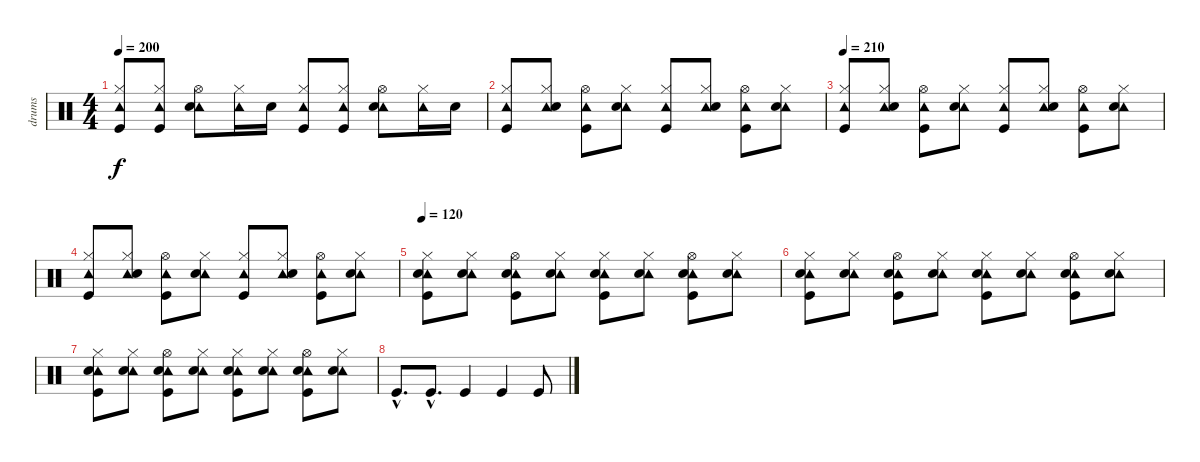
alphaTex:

\track ("drums" "drums") {instrument percussion}
\staff {score}
\articulation defaults
\ts (4 4)
\tempo 200
\clef neutral
\ks c
("Tambourine (hit)" "Hi-Hat (closed)" "Kick (hit)").8{dy f} ("Tambourine (hit)" "Hi-Hat (closed)" "Kick (hit)").8 ("Tambourine (hit)" "Hi-Hat (open)" "Electric Snare (hit)").8 ("Tambourine (hit)" "Hi-Hat (closed)").16 "Electric Snare (hit)".16 ("Tambourine (hit)" "Hi-Hat (closed)" "Kick (hit)").8 ("Tambourine (hit)" "Hi-Hat (closed)" "Kick (hit)").8 ("Tambourine (hit)" "Hi-Hat (open)" "Electric Snare (hit)").8 ("Tambourine (hit)" "Hi-Hat (closed)").16 "Electric Snare (hit)".16 |
("Tambourine (hit)" "Hi-Hat (closed)" "Kick (hit)").8 ("Tambourine (hit)" "Hi-Hat (closed)" "Electric Snare (hit)").8 ("Tambourine (hit)" "Hi-Hat (open)" "Kick (hit)").8 ("Tambourine (hit)" "Hi-Hat (closed)" "Electric Snare (hit)").8 ("Tambourine (hit)" "Hi-Hat (closed)" "Kick (hit)").8 ("Tambourine (hit)" "Hi-Hat (closed)" "Electric Snare (hit)").8 ("Tambourine (hit)" "Hi-Hat (open)" "Kick (hit)").8 ("Tambourine (hit)" "Hi-Hat (closed)" "Electric Snare (hit)").8 |
\tempo 210
("Tambourine (hit)" "Hi-Hat (closed)" "Kick (hit)").8 ("Tambourine (hit)" "Hi-Hat (closed)" "Electric Snare (hit)").8 ("Tambourine (hit)" "Hi-Hat (open)" "Kick (hit)").8 ("Tambourine (hit)" "Hi-Hat (closed)" "Electric Snare (hit)").8 ("Tambourine (hit)" "Hi-Hat (closed)" "Kick (hit)").8 ("Tambourine (hit)" "Hi-Hat (closed)" "Electric Snare (hit)").8 ("Tambourine (hit)" "Hi-Hat (open)" "Kick (hit)").8 ("Tambourine (hit)" "Hi-Hat (closed)" "Electric Snare (hit)").8 |
("Tambourine (hit)" "Hi-Hat (closed)" "Kick (hit)").8 ("Tambourine (hit)" "Hi-Hat (closed)" "Electric Snare (hit)").8 ("Tambourine (hit)" "Hi-Hat (open)" "Kick (hit)").8 ("Tambourine (hit)" "Hi-Hat (closed)" "Electric Snare (hit)").8 ("Tambourine (hit)" "Hi-Hat (closed)" "Kick (hit)").8 ("Tambourine (hit)" "Hi-Hat (closed)" "Electric Snare (hit)").8 ("Tambourine (hit)" "Hi-Hat (open)" "Kick (hit)").8 ("Tambourine (hit)" "Hi-Hat (closed)" "Electric Snare (hit)").8 |
\tempo 120
("Tambourine (hit)" "Hi-Hat (closed)" "Electric Snare (hit)" "Kick (hit)").8 ("Tambourine (hit)" "Hi-Hat (closed)" "Electric Snare (hit)").8 ("Tambourine (hit)" "Hi-Hat (open)" "Electric Snare (hit)" "Kick (hit)").8 ("Tambourine (hit)" "Hi-Hat (closed)" "Electric Snare (hit)").8 ("Tambourine (hit)" "Hi-Hat (closed)" "Electric Snare (hit)" "Kick (hit)").8 ("Tambourine (hit)" "Hi-Hat (closed)" "Electric Snare (hit)").8 ("Tambourine (hit)" "Hi-Hat (open)" "Electric Snare (hit)" "Kick (hit)").8 ("Tambourine (hit)" "Hi-Hat (closed)" "Electric Snare (hit)").8 |
("Tambourine (hit)" "Hi-Hat (closed)" "Electric Snare (hit)" "Kick (hit)").8 ("Tambourine (hit)" "Hi-Hat (closed)" "Electric Snare (hit)").8 ("Tambourine (hit)" "Hi-Hat (open)" "Electric Snare (hit)" "Kick (hit)").8 ("Tambourine (hit)" "Hi-Hat (closed)" "Electric Snare (hit)").8 ("Tambourine (hit)" "Hi-Hat (closed)" "Electric Snare (hit)" "Kick (hit)").8 ("Tambourine (hit)" "Hi-Hat (closed)" "Electric Snare (hit)").8 ("Tambourine (hit)" "Hi-Hat (open)" "Electric Snare (hit)" "Kick (hit)").8 ("Tambourine (hit)" "Hi-Hat (closed)" "Electric Snare (hit)").8 |
("Tambourine (hit)" "Hi-Hat (closed)" "Electric Snare (hit)" "Kick (hit)").8 ("Tambourine (hit)" "Hi-Hat (closed)" "Electric Snare (hit)").8 ("Tambourine (hit)" "Hi-Hat (open)" "Electric Snare (hit)" "Kick (hit)").8 ("Tambourine (hit)" "Hi-Hat (closed)" "Electric Snare (hit)").8 ("Tambourine (hit)" "Hi-Hat (closed)" "Electric Snare (hit)" "Kick (hit)").8 ("Tambourine (hit)" "Hi-Hat (closed)" "Electric Snare (hit)").8 ("Tambourine (hit)" "Hi-Hat (open)" "Electric Snare (hit)" "Kick (hit)").8 ("Tambourine (hit)" "Hi-Hat (closed)" "Electric Snare (hit)").8 |
"Kick (hit)"{hac}.8{d} "Kick (hit)"{hac}.8{d} "Kick (hit)".4 "Kick (hit)".4 "Kick (hit)".8
